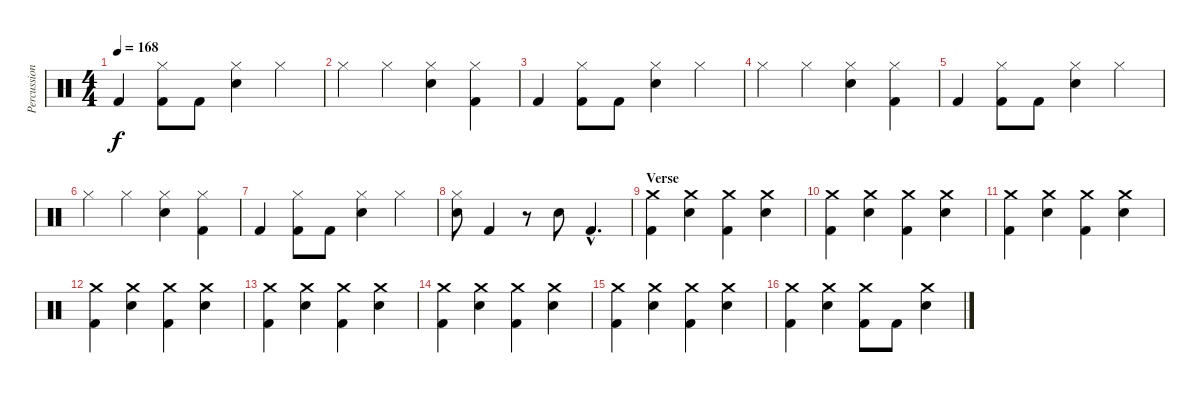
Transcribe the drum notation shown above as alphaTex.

\track ("Percussion" "Percussion") {instrument percussion}
\staff {score}
\articulation defaults
\ts (4 4)
\tempo 168
\clef neutral
\ks c "Kick (hit) 2".4{dy f}
("Hi-Hat (closed)" "Kick (hit) 2").8 "Kick (hit) 2".8 ("Hi-Hat (closed)" "Snare (hit) 2").4 "Hi-Hat (closed)".4 |
"Hi-Hat (closed)".4 "Hi-Hat (closed)".4 ("Hi-Hat (closed)" "Snare (hit) 2").4 ("Hi-Hat (closed)" "Kick (hit) 2").4 |
"Kick (hit) 2".4 ("Hi-Hat (closed)" "Kick (hit) 2").8 "Kick (hit) 2".8 ("Hi-Hat (closed)" "Snare (hit) 2").4 "Hi-Hat (closed)".4 |
"Hi-Hat (closed)".4 "Hi-Hat (closed)".4 ("Hi-Hat (closed)" "Snare (hit) 2").4 ("Hi-Hat (closed)" "Kick (hit) 2").4 |
"Kick (hit) 2".4 ("Hi-Hat (closed)" "Kick (hit) 2").8 "Kick (hit) 2".8 ("Hi-Hat (closed)" "Snare (hit) 2").4 "Hi-Hat (closed)".4 |
"Hi-Hat (closed)".4 "Hi-Hat (closed)".4 ("Hi-Hat (closed)" "Snare (hit) 2").4 ("Hi-Hat (closed)" "Kick (hit) 2").4 |
"Kick (hit) 2".4 ("Hi-Hat (closed)" "Kick (hit) 2").8 "Kick (hit) 2".8 ("Hi-Hat (closed)" "Snare (hit) 2").4 "Hi-Hat (closed)".4 |
("Hi-Hat (closed)" "Snare (hit) 2").8 "Kick (hit) 2".4 r.8 "Snare (hit) 2".8 "Kick (hit) 2"{hac}.4{d} |
\section ("" "Verse")
("Crash medium (hit)" "Kick (hit) 2").4 ("Crash medium (hit)" "Snare (hit) 2").4 ("Crash medium (hit)" "Kick (hit) 2").4 ("Crash medium (hit)" "Snare (hit) 2").4 |
("Crash medium (hit)" "Kick (hit) 2").4 ("Crash medium (hit)" "Snare (hit) 2").4 ("Crash medium (hit)" "Kick (hit) 2").4 ("Crash medium (hit)" "Snare (hit) 2").4 |
("Crash medium (hit)" "Kick (hit) 2").4 ("Crash medium (hit)" "Snare (hit) 2").4 ("Crash medium (hit)" "Kick (hit) 2").4 ("Crash medium (hit)" "Snare (hit) 2").4 |
("Crash medium (hit)" "Kick (hit) 2").4 ("Crash medium (hit)" "Snare (hit) 2").4 ("Crash medium (hit)" "Kick (hit) 2").4 ("Crash medium (hit)" "Snare (hit) 2").4 |
("Crash medium (hit)" "Kick (hit) 2").4 ("Crash medium (hit)" "Snare (hit) 2").4 ("Crash medium (hit)" "Kick (hit) 2").4 ("Crash medium (hit)" "Snare (hit) 2").4 |
("Crash medium (hit)" "Kick (hit) 2").4 ("Crash medium (hit)" "Snare (hit) 2").4 ("Crash medium (hit)" "Kick (hit) 2").4 ("Crash medium (hit)" "Snare (hit) 2").4 |
("Crash medium (hit)" "Kick (hit) 2").4 ("Crash medium (hit)" "Snare (hit) 2").4 ("Crash medium (hit)" "Kick (hit) 2").4 ("Crash medium (hit)" "Snare (hit) 2").4 |
("Crash medium (hit)" "Kick (hit) 2").4 ("Crash medium (hit)" "Snare (hit) 2").4 ("Crash medium (hit)" "Kick (hit) 2").8 "Kick (hit) 2".8 ("Crash medium (hit)" "Snare (hit) 2").4
